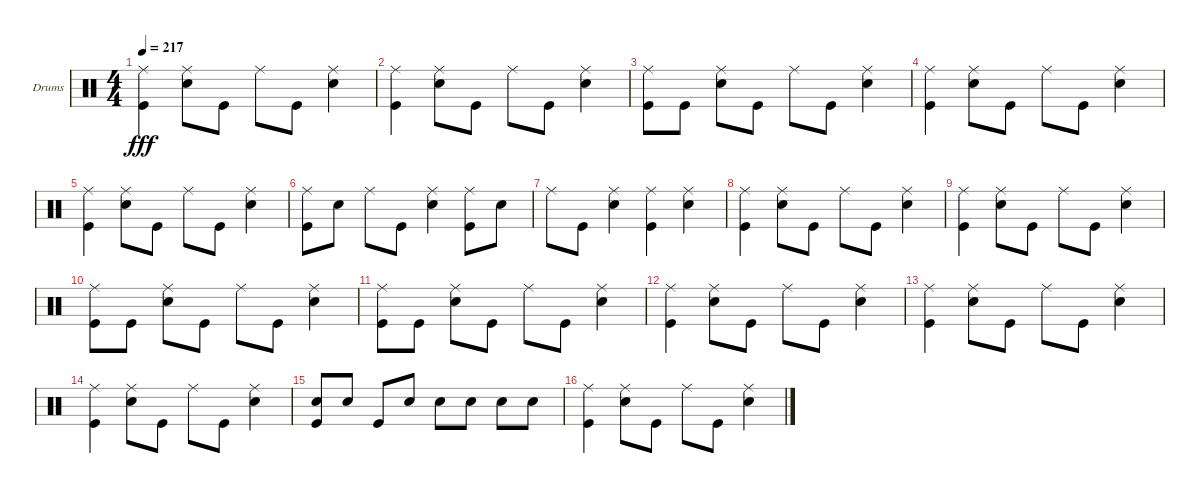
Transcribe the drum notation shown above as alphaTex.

\bracketExtendMode groupsimilarinstruments
\firstSystemTrackNameOrientation horizontal
\otherSystemsTrackNameOrientation horizontal
\track ("Drumkit" "Drums") {instrument percussion}
\staff {score}
\articulation defaults
\ts (4 4)
\tempo 217
\clef neutral
\ks c
("Kick (hit)" "Ride (middle)").4{dy fff} ("Snare (hit) 2" "Ride (middle)").8 "Kick (hit)".8 "Ride (middle)".8 "Kick (hit)".8 ("Snare (hit) 2" "Ride (middle)").4 |
("Kick (hit)" "Ride (middle)").4 ("Snare (hit) 2" "Ride (middle)").8 "Kick (hit)".8 "Ride (middle)".8 "Kick (hit)".8 ("Snare (hit) 2" "Ride (middle)").4 |
("Kick (hit)" "Ride (middle)").8 "Kick (hit)".8 ("Snare (hit) 2" "Ride (middle)").8 "Kick (hit)".8 "Ride (middle)".8 "Kick (hit)".8 ("Snare (hit) 2" "Ride (middle)").4 |
("Kick (hit)" "Ride (middle)").4 ("Snare (hit) 2" "Ride (middle)").8 "Kick (hit)".8 "Ride (middle)".8 "Kick (hit)".8 ("Snare (hit) 2" "Ride (middle)").4 |
("Kick (hit)" "Ride (middle)").4 ("Snare (hit) 2" "Ride (middle)").8 "Kick (hit)".8 "Ride (middle)".8 "Kick (hit)".8 ("Snare (hit) 2" "Ride (middle)").4 |
("Kick (hit)" "Ride (middle)").8 "Snare (hit) 2".8 "Ride (middle)".8 "Kick (hit)".8 ("Snare (hit) 2" "Ride (middle)").4 ("Kick (hit)" "Ride (middle)").8 "Snare (hit) 2".8 |
"Ride (middle)".8 "Kick (hit)".8 ("Snare (hit) 2" "Ride (middle)").4 ("Kick (hit)" "Ride (middle)").4 ("Snare (hit) 2" "Ride (middle)").4 |
("Kick (hit)" "Ride (middle)").4 ("Snare (hit) 2" "Ride (middle)").8 "Kick (hit)".8 "Ride (middle)".8 "Kick (hit)".8 ("Snare (hit) 2" "Ride (middle)").4 |
("Kick (hit)" "Ride (middle)").4 ("Snare (hit) 2" "Ride (middle)").8 "Kick (hit)".8 "Ride (middle)".8 "Kick (hit)".8 ("Snare (hit) 2" "Ride (middle)").4 |
("Kick (hit)" "Ride (middle)").8 "Kick (hit)".8 ("Snare (hit) 2" "Ride (middle)").8 "Kick (hit)".8 "Ride (middle)".8 "Kick (hit)".8 ("Snare (hit) 2" "Ride (middle)").4 |
("Kick (hit)" "Ride (middle)").8 "Kick (hit)".8 ("Snare (hit) 2" "Ride (middle)").8 "Kick (hit)".8 "Ride (middle)".8 "Kick (hit)".8 ("Snare (hit) 2" "Ride (middle)").4 |
("Kick (hit)" "Ride (middle)").4 ("Snare (hit) 2" "Ride (middle)").8 "Kick (hit)".8 "Ride (middle)".8 "Kick (hit)".8 ("Snare (hit) 2" "Ride (middle)").4 |
("Kick (hit)" "Ride (middle)").4 ("Snare (hit) 2" "Ride (middle)").8 "Kick (hit)".8 "Ride (middle)".8 "Kick (hit)".8 ("Snare (hit) 2" "Ride (middle)").4 |
("Kick (hit)" "Ride (middle)").4 ("Snare (hit) 2" "Ride (middle)").8 "Kick (hit)".8 "Ride (middle)".8 "Kick (hit)".8 ("Snare (hit) 2" "Ride (middle)").4 |
("Kick (hit)" "Snare (hit) 2").8 "Snare (hit) 2".8 "Kick (hit)".8 "Snare (hit) 2".8 "Snare (hit) 2".8 "Snare (hit) 2".8 "Snare (hit) 2".8 "Snare (hit) 2".8 |
("Kick (hit)" "Ride (middle)").4 ("Snare (hit) 2" "Ride (middle)").8 "Kick (hit)".8 "Ride (middle)".8 "Kick (hit)".8 ("Snare (hit) 2" "Ride (middle)").4
